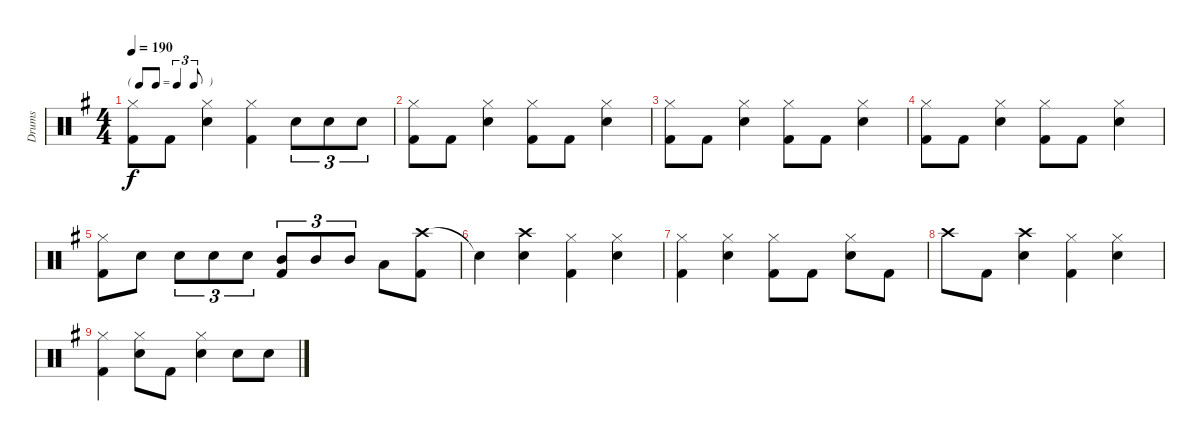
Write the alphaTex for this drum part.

\track ("Drums" "Drums") {instrument percussion}
\staff {score}
\articulation defaults
\ts (4 4)
\tf triplet8th
\tempo 190
\clef neutral
\ks g
("Hi-Hat (closed)" "Kick (hit) 2").8{dy f} "Kick (hit) 2".8 ("Hi-Hat (closed)" "Snare (hit) 2").4 ("Hi-Hat (closed)" "Kick (hit) 2").4 "Snare (hit) 2".8{tu (3 2)} "Snare (hit) 2".8{tu (3 2)} "Snare (hit) 2".8{tu (3 2)} |
("Hi-Hat (closed)" "Kick (hit) 2").8 "Kick (hit) 2".8 ("Hi-Hat (closed)" "Snare (hit) 2").4 ("Hi-Hat (closed)" "Kick (hit) 2").8 "Kick (hit) 2".8 ("Hi-Hat (closed)" "Snare (hit) 2").4 |
("Hi-Hat (closed)" "Kick (hit) 2").8 "Kick (hit) 2".8 ("Hi-Hat (closed)" "Snare (hit) 2").4 ("Hi-Hat (closed)" "Kick (hit) 2").8 "Kick (hit) 2".8 ("Hi-Hat (closed)" "Snare (hit) 2").4 |
("Hi-Hat (closed)" "Kick (hit) 2").8 "Kick (hit) 2".8 ("Hi-Hat (closed)" "Snare (hit) 2").4 ("Hi-Hat (closed)" "Kick (hit) 2").8 "Kick (hit) 2".8 ("Hi-Hat (closed)" "Snare (hit) 2").4 |
("Hi-Hat (closed)" "Kick (hit) 2").8 "Snare (hit) 2".8 "Snare (hit) 2".8{tu (3 2)} "Snare (hit) 2".8{tu (3 2)} "Snare (hit) 2".8{tu (3 2)} ("Mid Tom (hit)" "Kick (hit) 2").8{tu (3 2)} "Mid Tom (hit)".8{tu (3 2)} "Mid Tom (hit)".8{tu (3 2)} "Low Tom (hit)".8 ("Crash high (hit)" "Kick (hit) 2").8 |
"Snare (hit)"{t}.4 ("Crash high (hit)" "Snare (hit) 2").4 ("Hi-Hat (closed)" "Kick (hit) 2").4 ("Hi-Hat (closed)" "Snare (hit) 2").4 |
("Hi-Hat (closed)" "Kick (hit) 2").4 ("Hi-Hat (closed)" "Snare (hit) 2").4 ("Hi-Hat (closed)" "Kick (hit) 2").8 "Kick (hit) 2".8 ("Hi-Hat (closed)" "Snare (hit) 2").8 "Kick (hit) 2".8 |
"Crash high (hit)".8 "Kick (hit) 2".8 ("Crash high (hit)" "Snare (hit) 2").4 ("Hi-Hat (closed)" "Kick (hit) 2").4 ("Hi-Hat (closed)" "Snare (hit) 2").4 |
("Hi-Hat (closed)" "Kick (hit) 2").4 ("Hi-Hat (closed)" "Snare (hit) 2").8 "Kick (hit) 2".8 ("Hi-Hat (closed)" "Snare (hit) 2").4 "Snare (hit) 2".8 "Snare (hit) 2".8
